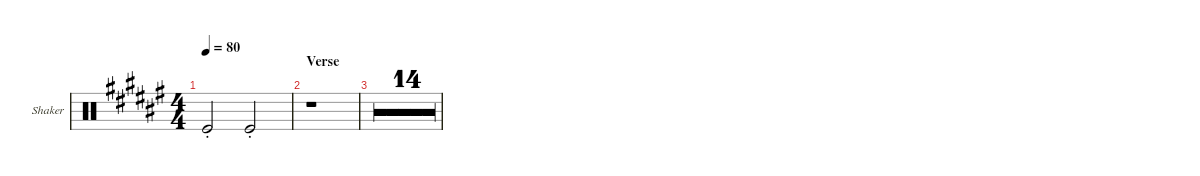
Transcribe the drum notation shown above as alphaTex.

\defaultSystemsLayout 4
\hideDynamics
\bracketExtendMode groupsimilarinstruments
\multiBarRest
\firstSystemTrackNameOrientation horizontal
\otherSystemsTrackNameOrientation horizontal
\track ("Shaker" "Shaker") {multiBarRest instrument percussion}
\staff {score}
\articulation defaults
\ts (4 4)
\tempo 80
\clef neutral
\ks f# "Kick (hit)"{st}.2{dy mp} "Kick (hit)"{st}.2
|
\section ("" "Verse")
r.1 |
r.1 |
r.1 |
r.1 |
r.1 |
\barLineRight lightlight
r.1 |
r.1 |
r.1 |
r.1 |
r.1 |
r.1 |
\barLineRight lightlight
r.1 |
r.1 |
r.1 |
r.1
